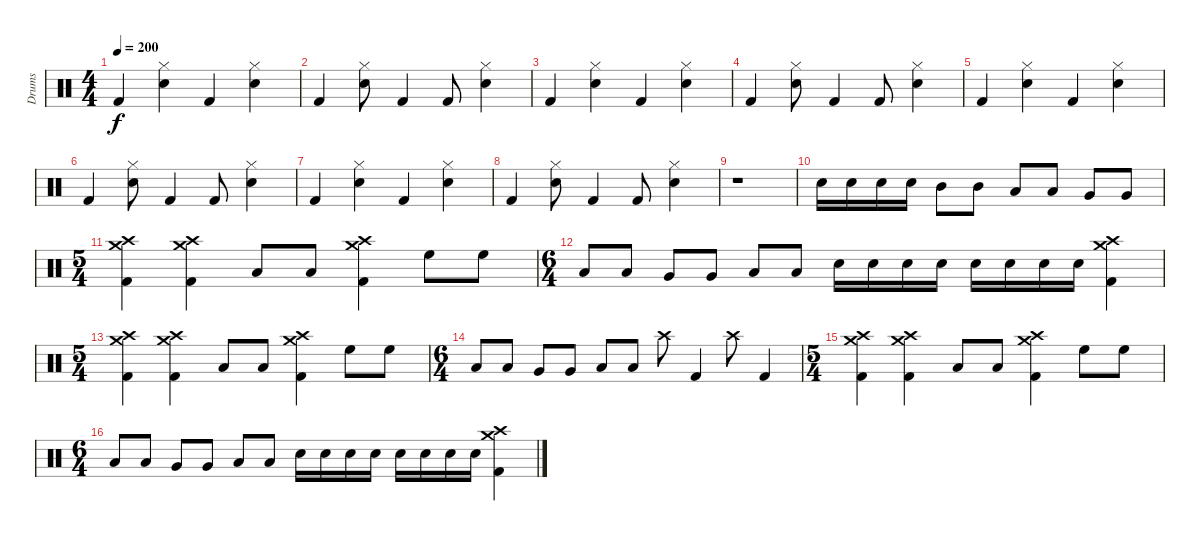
\track ("Drums" "Drums") {instrument percussion}
\staff {score}
\articulation defaults
\ts (4 4)
\tempo 200
\clef neutral
\ks c "Kick (hit) 2".4{dy f}
("Snare (hit) 2" "Hi-Hat (closed)").4 "Kick (hit) 2".4 ("Snare (hit) 2" "Hi-Hat (closed)").4 |
"Kick (hit) 2".4 ("Snare (hit) 2" "Hi-Hat (closed)").8 "Kick (hit) 2".4 "Kick (hit) 2".8 ("Snare (hit) 2" "Hi-Hat (closed)").4 |
"Kick (hit) 2".4 ("Snare (hit) 2" "Hi-Hat (closed)").4 "Kick (hit) 2".4 ("Snare (hit) 2" "Hi-Hat (closed)").4 |
"Kick (hit) 2".4 ("Snare (hit) 2" "Hi-Hat (closed)").8 "Kick (hit) 2".4 "Kick (hit) 2".8 ("Snare (hit) 2" "Hi-Hat (closed)").4 |
"Kick (hit) 2".4 ("Snare (hit) 2" "Hi-Hat (closed)").4 "Kick (hit) 2".4 ("Snare (hit) 2" "Hi-Hat (closed)").4 |
"Kick (hit) 2".4 ("Snare (hit) 2" "Hi-Hat (closed)").8 "Kick (hit) 2".4 "Kick (hit) 2".8 ("Snare (hit) 2" "Hi-Hat (closed)").4 |
"Kick (hit) 2".4 ("Snare (hit) 2" "Hi-Hat (closed)").4 "Kick (hit) 2".4 ("Snare (hit) 2" "Hi-Hat (closed)").4 |
"Kick (hit) 2".4 ("Snare (hit) 2" "Hi-Hat (closed)").8 "Kick (hit) 2".4 "Kick (hit) 2".8 ("Snare (hit) 2" "Hi-Hat (closed)").4 |
r.1 |
"Snare (hit) 2".16 "Snare (hit) 2".16 "Snare (hit) 2".16 "Snare (hit) 2".16 "Mid Tom (hit)".8 "Mid Tom (hit)".8 "Low Tom (hit)".8 "Low Tom (hit)".8 "Very Low Tom (hit)".8 "Very Low Tom (hit)".8 |
\ts (5 4)
("Crash high (hit)" "Crash medium (hit)" "Kick (hit) 2").4 ("Crash high (hit)" "Crash medium (hit)" "Kick (hit) 2").4 "Low Floor Tom (hit)".8 "Low Floor Tom (hit)".8 ("Crash high (hit)" "Crash medium (hit)" "Kick (hit) 2").4 "High Floor Tom (hit)".8 "High Floor Tom (hit)".8 |
\ts (6 4)
"Low Tom (hit)".8 "Low Tom (hit)".8 "Very Low Tom (hit)".8 "Very Low Tom (hit)".8 "Low Floor Tom (hit)".8 "Low Floor Tom (hit)".8 "Snare (hit) 2".16 "Snare (hit) 2".16 "Snare (hit) 2".16 "Snare (hit) 2".16 "Snare (hit) 2".16 "Snare (hit) 2".16 "Snare (hit) 2".16 "Snare (hit) 2".16 ("Crash medium (hit)" "Crash high (hit)" "Kick (hit) 2").4 |
\ts (5 4)
("Crash high (hit)" "Crash medium (hit)" "Kick (hit) 2").4 ("Crash high (hit)" "Crash medium (hit)" "Kick (hit) 2").4 "Low Floor Tom (hit)".8 "Low Floor Tom (hit)".8 ("Crash high (hit)" "Crash medium (hit)" "Kick (hit) 2").4 "High Floor Tom (hit)".8 "High Floor Tom (hit)".8 |
\ts (6 4)
"Low Tom (hit)".8 "Low Tom (hit)".8 "Very Low Tom (hit)".8 "Very Low Tom (hit)".8 "Low Floor Tom (hit)".8 "Low Floor Tom (hit)".8 "Crash high (hit)".8 "Kick (hit) 2".4 "Crash high (hit)".8 "Kick (hit) 2".4 |
\ts (5 4)
("Crash high (hit)" "Crash medium (hit)" "Kick (hit) 2").4 ("Crash high (hit)" "Crash medium (hit)" "Kick (hit) 2").4 "Low Floor Tom (hit)".8 "Low Floor Tom (hit)".8 ("Crash high (hit)" "Crash medium (hit)" "Kick (hit) 2").4 "High Floor Tom (hit)".8 "High Floor Tom (hit)".8 |
\ts (6 4)
"Low Tom (hit)".8 "Low Tom (hit)".8 "Very Low Tom (hit)".8 "Very Low Tom (hit)".8 "Low Floor Tom (hit)".8 "Low Floor Tom (hit)".8 "Snare (hit) 2".16 "Snare (hit) 2".16 "Snare (hit) 2".16 "Snare (hit) 2".16 "Snare (hit) 2".16 "Snare (hit) 2".16 "Snare (hit) 2".16 "Snare (hit) 2".16 ("Crash medium (hit)" "Crash high (hit)" "Kick (hit) 2").4
